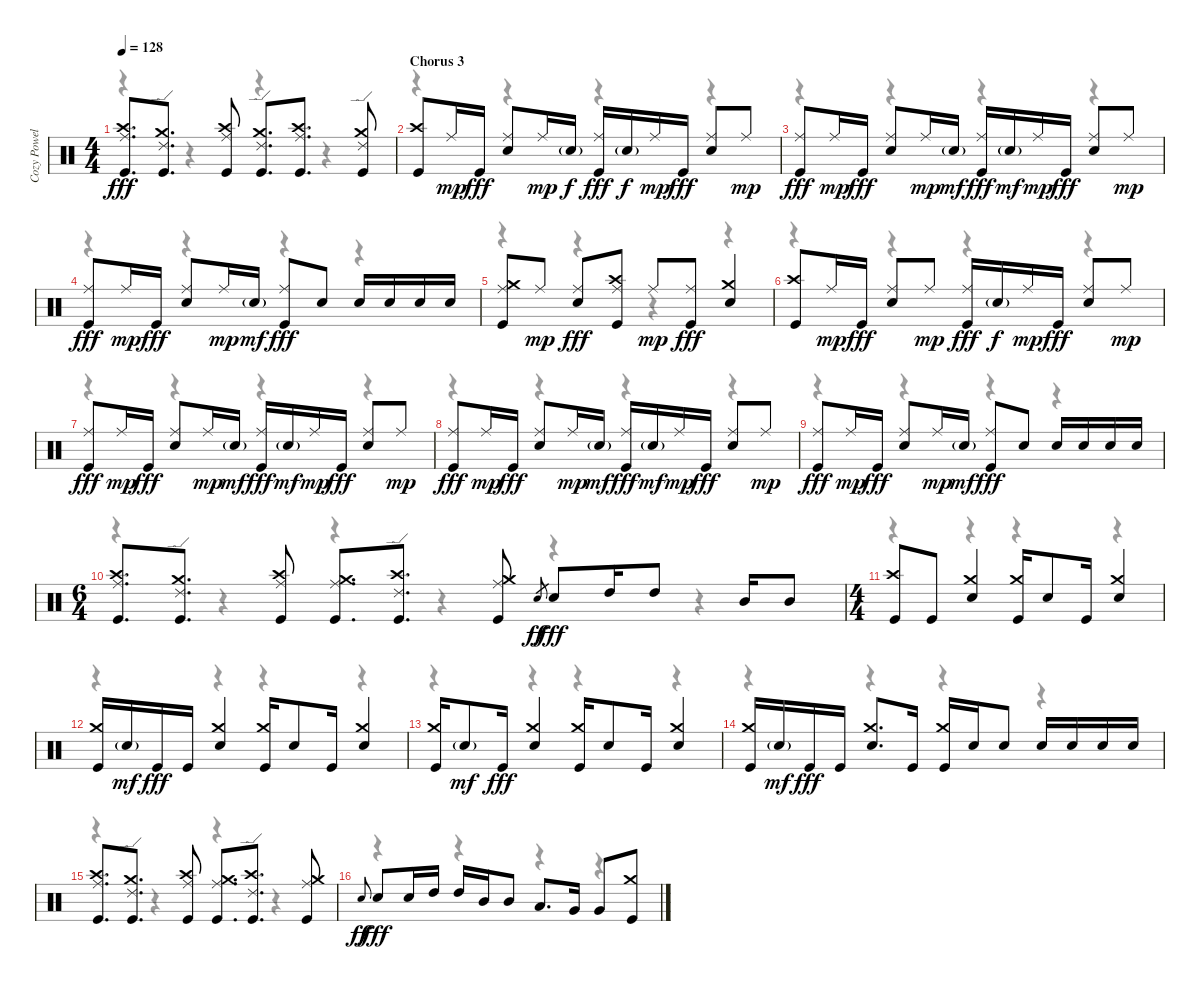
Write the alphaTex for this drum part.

\track ("Cozy Powell - Drums" "Cozy Powel") {instrument percussion}
\staff {score}
\articulation defaults
\voice
\ts (4 4)
\tempo 128
\clef neutral
\ks c
("Kick (hit)" "Ride (middle)" "Crash high (hit)").8{d dy fff} ("Kick (hit)" "Ride (edge) 2" "Crash medium (hit)").8{d} ("Kick (hit)" "Ride (middle)" "Crash high (hit)").8 ("Kick (hit)" "Ride (edge) 2" "Crash medium (hit)").8{d} ("Kick (hit)" "Ride (middle)" "Crash high (hit)").8{d} ("Kick (hit)" "Ride (edge) 2" "Crash medium (hit)").8 |
\section ("" "Chorus 3")
("Kick (hit)" "Crash high (hit)").8 "Ride (middle)".16{dy mp} "Kick (hit)".16{dy fff} ("Snare (hit) 2" "Ride (middle)").8 "Ride (middle)".16{dy mp} "Snare (hit) 2"{g}.16{dy f} ("Kick (hit)" "Ride (middle)").16{dy fff} "Snare (hit) 2"{g}.16{dy f} "Ride (middle)".16{dy mp} "Kick (hit)".16{dy fff} ("Snare (hit) 2" "Ride (middle)").8 "Ride (middle)".8{dy mp} |
("Kick (hit)" "Ride (middle)").8{dy fff} "Ride (middle)".16{dy mp} "Kick (hit)".16{dy fff} ("Snare (hit) 2" "Ride (middle)").8 "Ride (middle)".16{dy mp} "Snare (hit) 2"{g}.16{dy mf} ("Kick (hit)" "Ride (middle)").16{dy fff} "Snare (hit) 2"{g}.16{dy mf} "Ride (middle)".16{dy mp} "Kick (hit)".16{dy fff} ("Snare (hit) 2" "Ride (middle)").8 "Ride (middle)".8{dy mp} |
("Kick (hit)" "Ride (middle)").8{dy fff} "Ride (middle)".16{dy mp} "Kick (hit)".16{dy fff} ("Snare (hit) 2" "Ride (middle)").8 "Ride (middle)".16{dy mp} "Snare (hit) 2"{g}.16{dy mf} ("Kick (hit)" "Ride (middle)").8{dy fff} "Snare (hit) 2".8 "Snare (hit) 2".16 "Snare (hit) 2".16 "Snare (hit) 2".16 "Snare (hit) 2".16 |
("Kick (hit)" "Ride (middle)" "Crash medium (hit)").8 "Ride (middle)".8{dy mp} ("Snare (hit) 2" "Ride (middle)").8{dy fff} ("Kick (hit)" "Ride (middle)" "Crash high (hit)").8 "Ride (middle)".8{dy mp} ("Kick (hit)" "Ride (middle)").8{dy fff} ("Snare (hit) 2" "Crash medium (hit)").4 |
("Kick (hit)" "Crash high (hit)").8 "Ride (middle)".16{dy mp} "Kick (hit)".16{dy fff} ("Snare (hit) 2" "Ride (middle)").8 "Ride (middle)".8{dy mp} ("Kick (hit)" "Ride (middle)").16{dy fff} "Snare (hit) 2"{g}.16{dy f} "Ride (middle)".16{dy mp} "Kick (hit)".16{dy fff} ("Snare (hit) 2" "Ride (middle)").8 "Ride (middle)".8{dy mp} |
("Kick (hit)" "Ride (middle)").8{dy fff} "Ride (middle)".16{dy mp} "Kick (hit)".16{dy fff} ("Snare (hit) 2" "Ride (middle)").8 "Ride (middle)".16{dy mp} "Snare (hit) 2"{g}.16{dy mf} ("Kick (hit)" "Ride (middle)").16{dy fff} "Snare (hit) 2"{g}.16{dy mf} "Ride (middle)".16{dy mp} "Kick (hit)".16{dy fff} ("Snare (hit) 2" "Ride (middle)").8 "Ride (middle)".8{dy mp} |
("Kick (hit)" "Ride (middle)").8{dy fff} "Ride (middle)".16{dy mp} "Kick (hit)".16{dy fff} ("Snare (hit) 2" "Ride (middle)").8 "Ride (middle)".16{dy mp} "Snare (hit) 2"{g}.16{dy mf} ("Kick (hit)" "Ride (middle)").16{dy fff} "Snare (hit) 2"{g}.16{dy mf} "Ride (middle)".16{dy mp} "Kick (hit)".16{dy fff} ("Snare (hit) 2" "Ride (middle)").8 "Ride (middle)".8{dy mp} |
("Kick (hit)" "Ride (middle)").8{dy fff} "Ride (middle)".16{dy mp} "Kick (hit)".16{dy fff} ("Snare (hit) 2" "Ride (middle)").8 "Ride (middle)".16{dy mp} "Snare (hit) 2"{g}.16{dy mf} ("Kick (hit)" "Ride (middle)").8{dy fff} "Snare (hit) 2".8 "Snare (hit) 2".16 "Snare (hit) 2".16 "Snare (hit) 2".16 "Snare (hit) 2".16 |
\ts (6 4)
("Kick (hit)" "Ride (middle)" "Crash high (hit)").8{d} ("Kick (hit)" "Ride (edge) 2" "Crash medium (hit)").8{d} ("Kick (hit)" "Ride (middle)" "Crash high (hit)").8 ("Kick (hit)" "Ride (middle)" "Crash medium (hit)").8{d} ("Kick (hit)" "Ride (edge) 2" "Crash high (hit)").8{d} ("Kick (hit)" "Ride (middle)" "Crash medium (hit)").8 "Snare (hit)".8{gr dy ff} "Snare (hit) 2".8{dy fff} "High Tom (hit)".16 "High Tom (hit)".8 "Mid Tom (hit)".16 "Mid Tom (hit)".8 |
\ts (4 4)
("Kick (hit)" "Crash high (hit)").8 "Kick (hit)".8 ("Snare (hit) 2" "Crash medium (hit)").4 ("Kick (hit)" "Crash medium (hit)").16 "Snare (hit) 2".8 "Kick (hit)".16 ("Snare (hit) 2" "Crash medium (hit)").4 |
("Kick (hit)" "Crash medium (hit)").16 "Snare (hit) 2"{g}.16{dy mf} "Kick (hit)".16{dy fff} "Kick (hit)".16 ("Snare (hit) 2" "Crash medium (hit)").4 ("Kick (hit)" "Crash medium (hit)").16 "Snare (hit) 2".8 "Kick (hit)".16 ("Snare (hit) 2" "Crash medium (hit)").4 |
("Kick (hit)" "Crash medium (hit)").16 "Snare (hit) 2"{g}.8{dy mf} "Kick (hit)".16{dy fff} ("Snare (hit) 2" "Crash medium (hit)").4 ("Kick (hit)" "Crash medium (hit)").16 "Snare (hit) 2".8 "Kick (hit)".16 ("Snare (hit) 2" "Crash medium (hit)").4 |
("Kick (hit)" "Crash medium (hit)").16 "Snare (hit) 2"{g}.16{dy mf} "Kick (hit)".16{dy fff} "Kick (hit)".16 ("Snare (hit) 2" "Crash medium (hit)").8{d} "Kick (hit)".16 ("Kick (hit)" "Crash medium (hit)").16 "Snare (hit) 2".16 "Snare (hit) 2".8 "Snare (hit) 2".16 "Snare (hit) 2".16 "Snare (hit) 2".16 "Snare (hit) 2".16 |
("Kick (hit)" "Ride (middle)" "Crash high (hit)").8{d} ("Kick (hit)" "Ride (edge) 2" "Crash medium (hit)").8{d} ("Kick (hit)" "Ride (middle)" "Crash high (hit)").8 ("Kick (hit)" "Ride (middle)" "Crash medium (hit)").8{d} ("Kick (hit)" "Ride (edge) 2" "Crash high (hit)").8{d} ("Kick (hit)" "Ride (middle)" "Crash medium (hit)").8 |
"Snare (hit)".8{gr onbeat dy ff} "Snare (hit) 2".8{dy fff} "Snare (hit) 2".16 "High Tom (hit)".16 "High Tom (hit)".16 "Mid Tom (hit)".16 "Mid Tom (hit)".8 "Low Tom (hit)".8{d} "Very Low Tom (hit)".16 "Very Low Tom (hit)".8 ("Kick (hit)" "Crash medium (hit)").8
\voice
\clef neutral
\ottava regular
\simile none
\ks c
r.4{dy f} r.4 r.4 r.4 |
r.4 r.4 r.4 r.4 |
r.4 r.4 r.4 r.4 |
r.4 r.4 r.4 r.4 |
r.4 r.4 r.4 r.4 |
r.4 r.4 r.4 r.4 |
r.4 r.4 r.4 r.4 |
r.4 r.4 r.4 r.4 |
r.4 r.4 r.4 r.4 |
r.4 r.4 r.4 r.4 r.4 r.4 |
r.4 r.4 r.4 r.4 |
r.4 r.4 r.4 r.4 |
r.4 r.4 r.4 r.4 |
r.4 r.4 r.4 r.4 |
r.4 r.4 r.4 r.4 |
r.4 r.4 r.4 r.4
